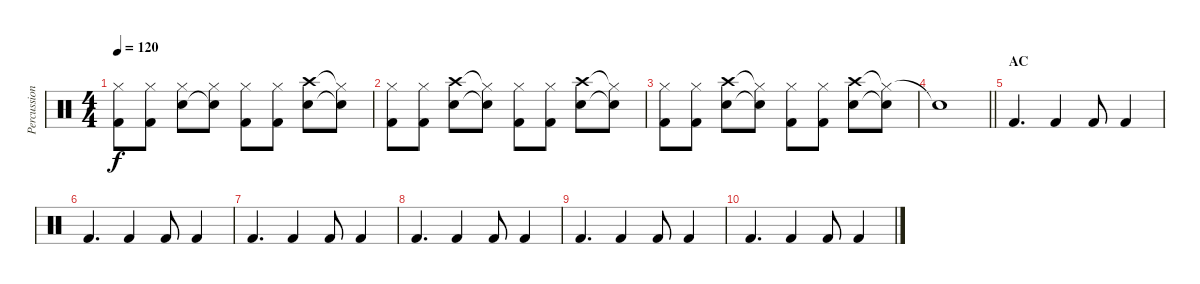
\track ("Percussion" "Percussion") {instrument percussion}
\staff {score}
\articulation defaults
\ts (4 4)
\tempo 120
\clef neutral
\ks c
("Hi-Hat (closed)" "Kick (hit) 2").8{dy f} ("Hi-Hat (closed)" "Kick (hit) 2").8 ("Hi-Hat (closed)" "Electric Snare (hit)").8 ("Hi-Hat (closed)" "Electric Snare (hit)"{t}).8 ("Hi-Hat (closed)" "Kick (hit) 2").8 ("Hi-Hat (closed)" "Kick (hit) 2").8 ("Crash high (hit)" "Electric Snare (hit)").8 ("Hi-Hat (closed)"{t} "Electric Snare (hit)"{t}).8 |
("Hi-Hat (closed)" "Kick (hit) 2").8 ("Hi-Hat (closed)" "Kick (hit) 2").8 ("Crash high (hit)" "Electric Snare (hit)").8 ("Hi-Hat (closed)"{t} "Electric Snare (hit)"{t}).8 ("Hi-Hat (closed)" "Kick (hit) 2").8 ("Hi-Hat (closed)" "Kick (hit) 2").8 ("Crash high (hit)" "Electric Snare (hit)").8 ("Hi-Hat (closed)"{t} "Electric Snare (hit)"{t}).8 |
("Hi-Hat (closed)" "Kick (hit) 2").8 ("Hi-Hat (closed)" "Kick (hit) 2").8 ("Crash high (hit)" "Electric Snare (hit)").8 ("Hi-Hat (closed)"{t} "Electric Snare (hit)"{t}).8 ("Hi-Hat (closed)" "Kick (hit) 2").8 ("Hi-Hat (closed)" "Kick (hit) 2").8 ("Crash high (hit)" "Electric Snare (hit)").8 ("Hi-Hat (closed)"{t} "Electric Snare (hit)"{t}).8 |
\barLineRight lightlight "Snare (hit)"{t}.1
|
\section ("" "AC")
"Kick (hit) 2".4{d} "Kick (hit) 2".4 "Kick (hit) 2".8 "Kick (hit) 2".4 |
"Kick (hit) 2".4{d} "Kick (hit) 2".4 "Kick (hit) 2".8 "Kick (hit) 2".4 |
"Kick (hit) 2".4{d} "Kick (hit) 2".4 "Kick (hit) 2".8 "Kick (hit) 2".4 |
"Kick (hit) 2".4{d} "Kick (hit) 2".4 "Kick (hit) 2".8 "Kick (hit) 2".4 |
"Kick (hit) 2".4{d} "Kick (hit) 2".4 "Kick (hit) 2".8 "Kick (hit) 2".4 |
"Kick (hit) 2".4{d} "Kick (hit) 2".4 "Kick (hit) 2".8 "Kick (hit) 2".4
